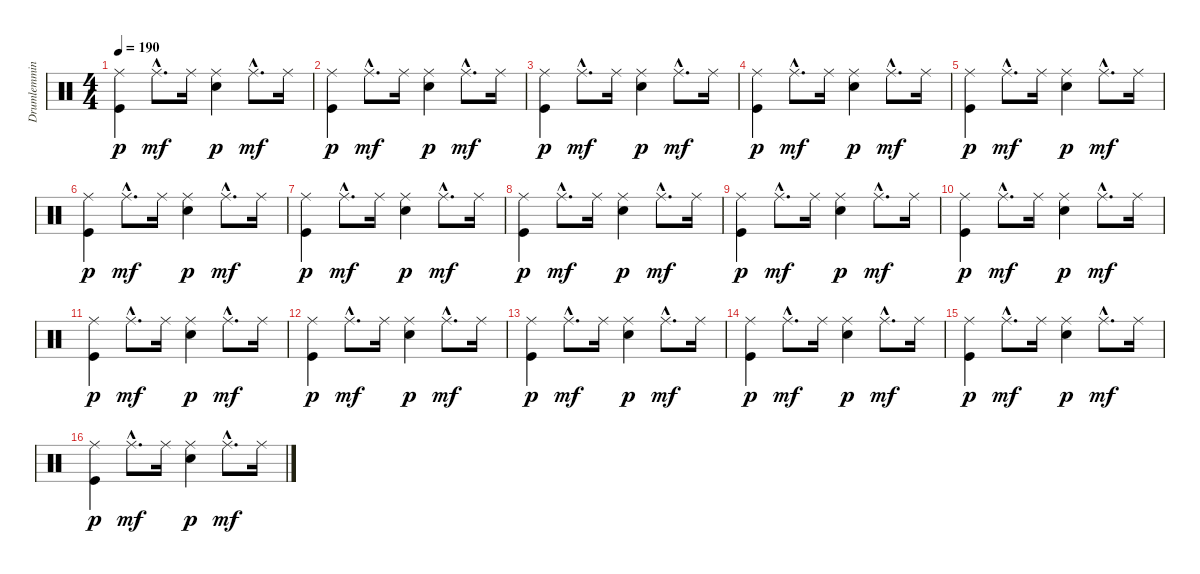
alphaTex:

\track ("Drumlemming" "Drumlemmin") {instrument percussion}
\staff {score}
\articulation defaults
\ts (4 4)
\tempo 190
\clef neutral
\ks c
("Kick (hit)" "Ride (middle)").4{dy p} "Ride (middle)"{hac}.8{d dy mf} "Ride (middle)".16 ("Snare (hit) 2" "Ride (middle)").4{dy p} "Ride (middle)"{hac}.8{d dy mf} "Ride (middle)".16 |
("Kick (hit)" "Ride (middle)").4{dy p} "Ride (middle)"{hac}.8{d dy mf} "Ride (middle)".16 ("Snare (hit) 2" "Ride (middle)").4{dy p} "Ride (middle)"{hac}.8{d dy mf} "Ride (middle)".16 |
("Kick (hit)" "Ride (middle)").4{dy p} "Ride (middle)"{hac}.8{d dy mf} "Ride (middle)".16 ("Snare (hit) 2" "Ride (middle)").4{dy p} "Ride (middle)"{hac}.8{d dy mf} "Ride (middle)".16 |
("Kick (hit)" "Ride (middle)").4{dy p} "Ride (middle)"{hac}.8{d dy mf} "Ride (middle)".16 ("Snare (hit) 2" "Ride (middle)").4{dy p} "Ride (middle)"{hac}.8{d dy mf} "Ride (middle)".16 |
("Kick (hit)" "Ride (middle)").4{dy p} "Ride (middle)"{hac}.8{d dy mf} "Ride (middle)".16 ("Snare (hit) 2" "Ride (middle)").4{dy p} "Ride (middle)"{hac}.8{d dy mf} "Ride (middle)".16 |
("Kick (hit)" "Ride (middle)").4{dy p} "Ride (middle)"{hac}.8{d dy mf} "Ride (middle)".16 ("Snare (hit) 2" "Ride (middle)").4{dy p} "Ride (middle)"{hac}.8{d dy mf} "Ride (middle)".16 |
("Kick (hit)" "Ride (middle)").4{dy p} "Ride (middle)"{hac}.8{d dy mf} "Ride (middle)".16 ("Snare (hit) 2" "Ride (middle)").4{dy p} "Ride (middle)"{hac}.8{d dy mf} "Ride (middle)".16 |
("Kick (hit)" "Ride (middle)").4{dy p} "Ride (middle)"{hac}.8{d dy mf} "Ride (middle)".16 ("Snare (hit) 2" "Ride (middle)").4{dy p} "Ride (middle)"{hac}.8{d dy mf} "Ride (middle)".16 |
("Kick (hit)" "Ride (middle)").4{dy p} "Ride (middle)"{hac}.8{d dy mf} "Ride (middle)".16 ("Snare (hit) 2" "Ride (middle)").4{dy p} "Ride (middle)"{hac}.8{d dy mf} "Ride (middle)".16 |
("Kick (hit)" "Ride (middle)").4{dy p} "Ride (middle)"{hac}.8{d dy mf} "Ride (middle)".16 ("Snare (hit) 2" "Ride (middle)").4{dy p} "Ride (middle)"{hac}.8{d dy mf} "Ride (middle)".16 |
("Kick (hit)" "Ride (middle)").4{dy p} "Ride (middle)"{hac}.8{d dy mf} "Ride (middle)".16 ("Snare (hit) 2" "Ride (middle)").4{dy p} "Ride (middle)"{hac}.8{d dy mf} "Ride (middle)".16 |
("Kick (hit)" "Ride (middle)").4{dy p} "Ride (middle)"{hac}.8{d dy mf} "Ride (middle)".16 ("Snare (hit) 2" "Ride (middle)").4{dy p} "Ride (middle)"{hac}.8{d dy mf} "Ride (middle)".16 |
("Kick (hit)" "Ride (middle)").4{dy p} "Ride (middle)"{hac}.8{d dy mf} "Ride (middle)".16 ("Snare (hit) 2" "Ride (middle)").4{dy p} "Ride (middle)"{hac}.8{d dy mf} "Ride (middle)".16 |
("Kick (hit)" "Ride (middle)").4{dy p} "Ride (middle)"{hac}.8{d dy mf} "Ride (middle)".16 ("Snare (hit) 2" "Ride (middle)").4{dy p} "Ride (middle)"{hac}.8{d dy mf} "Ride (middle)".16 |
("Kick (hit)" "Ride (middle)").4{dy p} "Ride (middle)"{hac}.8{d dy mf} "Ride (middle)".16 ("Snare (hit) 2" "Ride (middle)").4{dy p} "Ride (middle)"{hac}.8{d dy mf} "Ride (middle)".16 |
("Kick (hit)" "Ride (middle)").4{dy p} "Ride (middle)"{hac}.8{d dy mf} "Ride (middle)".16 ("Snare (hit) 2" "Ride (middle)").4{dy p} "Ride (middle)"{hac}.8{d dy mf} "Ride (middle)".16
